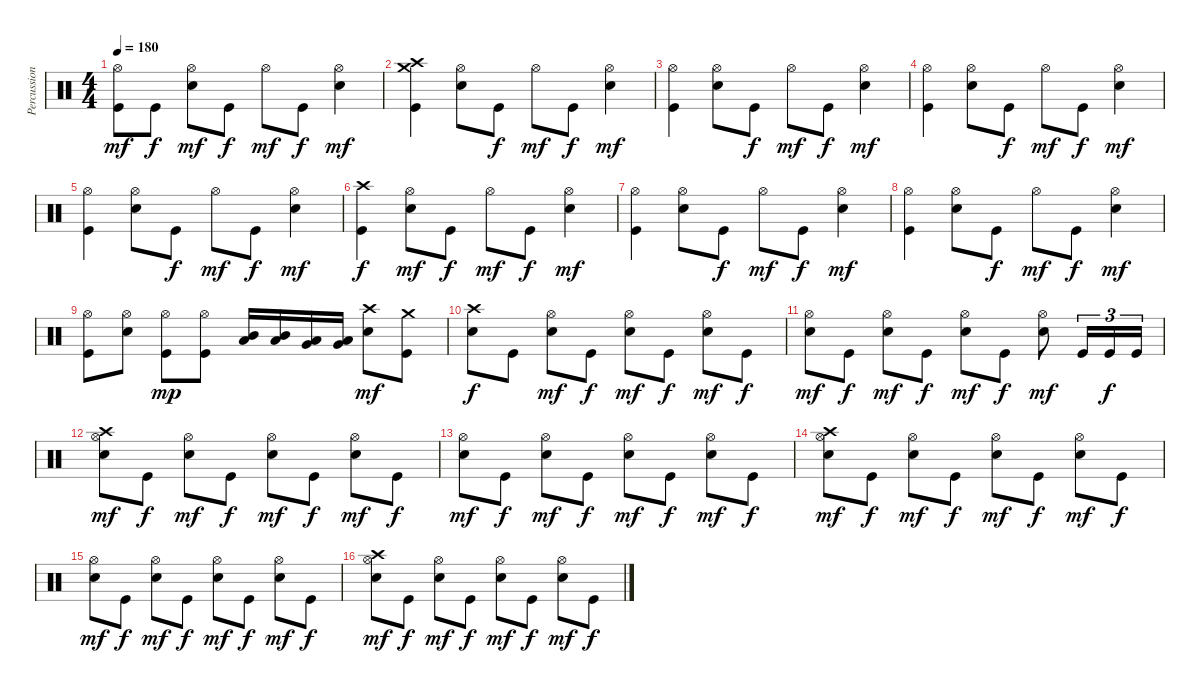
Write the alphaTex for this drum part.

\track ("Percussions" "Percussion") {instrument percussion}
\staff {score}
\articulation defaults
\ts (4 4)
\tempo 180
\clef neutral
\ks c
("Kick (hit)" "Hi-Hat (open)").8{dy mf} "Kick (hit)".8{dy f} ("Electric Snare (hit)" "Hi-Hat (open)").8{dy mf} "Kick (hit)".8{dy f} "Hi-Hat (open)".8{dy mf} "Kick (hit)".8{dy f} ("Electric Snare (hit)" "Hi-Hat (open)").4{dy mf} |
("Kick (hit)" "Crash high (hit)" "Crash medium (hit)").4 ("Electric Snare (hit)" "Hi-Hat (open)").8 "Kick (hit)".8{dy f} "Hi-Hat (open)".8{dy mf} "Kick (hit)".8{dy f} ("Electric Snare (hit)" "Hi-Hat (open)").4{dy mf} |
("Kick (hit)" "Hi-Hat (open)").4 ("Electric Snare (hit)" "Hi-Hat (open)").8 "Kick (hit)".8{dy f} "Hi-Hat (open)".8{dy mf} "Kick (hit)".8{dy f} ("Electric Snare (hit)" "Hi-Hat (open)").4{dy mf} |
("Kick (hit)" "Hi-Hat (open)").4 ("Electric Snare (hit)" "Hi-Hat (open)").8 "Kick (hit)".8{dy f} "Hi-Hat (open)".8{dy mf} "Kick (hit)".8{dy f} ("Electric Snare (hit)" "Hi-Hat (open)").4{dy mf} |
("Kick (hit)" "Hi-Hat (open)").4 ("Electric Snare (hit)" "Hi-Hat (open)").8 "Kick (hit)".8{dy f} "Hi-Hat (open)".8{dy mf} "Kick (hit)".8{dy f} ("Electric Snare (hit)" "Hi-Hat (open)").4{dy mf} |
("Kick (hit)" "Crash high (hit)").4{dy f} ("Electric Snare (hit)" "Hi-Hat (open)").8{dy mf} "Kick (hit)".8{dy f} "Hi-Hat (open)".8{dy mf} "Kick (hit)".8{dy f} ("Electric Snare (hit)" "Hi-Hat (open)").4{dy mf} |
("Kick (hit)" "Hi-Hat (open)").4 ("Electric Snare (hit)" "Hi-Hat (open)").8 "Kick (hit)".8{dy f} "Hi-Hat (open)".8{dy mf} "Kick (hit)".8{dy f} ("Electric Snare (hit)" "Hi-Hat (open)").4{dy mf} |
("Kick (hit)" "Hi-Hat (open)").4 ("Electric Snare (hit)" "Hi-Hat (open)").8 "Kick (hit)".8{dy f} "Hi-Hat (open)".8{dy mf} "Kick (hit)".8{dy f} ("Electric Snare (hit)" "Hi-Hat (open)").4{dy mf} |
("Kick (hit)" "Hi-Hat (open)").8 ("Electric Snare (hit)" "Hi-Hat (open)").8 ("Kick (hit)" "Hi-Hat (open)").8{dy mp} ("Kick (hit)" "Hi-Hat (open)").8 ("Low Tom (hit)" "Mid Tom (hit)").16 ("Low Tom (hit)" "Mid Tom (hit)").16 ("Very Low Tom (hit)" "Low Tom (hit)").16 ("Very Low Tom (hit)" "Low Tom (hit)").16 ("Electric Snare (hit)" "Crash high (hit)").8{dy mf} ("Kick (hit)" "Crash medium (hit)").8 |
("Electric Snare (hit)" "Crash high (hit)").8{dy f} "Kick (hit)".8 ("Electric Snare (hit)" "Hi-Hat (open)").8{dy mf} "Kick (hit)".8{dy f} ("Electric Snare (hit)" "Hi-Hat (open)").8{dy mf} "Kick (hit)".8{dy f} ("Electric Snare (hit)" "Hi-Hat (open)").8{dy mf} "Kick (hit)".8{dy f} |
("Electric Snare (hit)" "Hi-Hat (open)").8{dy mf} "Kick (hit)".8{dy f} ("Electric Snare (hit)" "Hi-Hat (open)").8{dy mf} "Kick (hit)".8{dy f} ("Electric Snare (hit)" "Hi-Hat (open)").8{dy mf} "Kick (hit)".8{dy f} ("Electric Snare (hit)" "Hi-Hat (open)").8{dy mf} "Kick (hit)".16{tu (3 2)} "Kick (hit)".16{tu (3 2) dy f} "Kick (hit)".16{tu (3 2)} |
("Electric Snare (hit)" "Hi-Hat (open)" "Crash high (hit)").8{dy mf} "Kick (hit)".8{dy f} ("Electric Snare (hit)" "Hi-Hat (open)").8{dy mf} "Kick (hit)".8{dy f} ("Electric Snare (hit)" "Hi-Hat (open)").8{dy mf} "Kick (hit)".8{dy f} ("Electric Snare (hit)" "Hi-Hat (open)").8{dy mf} "Kick (hit)".8{dy f} |
("Electric Snare (hit)" "Hi-Hat (open)").8{dy mf} "Kick (hit)".8{dy f} ("Electric Snare (hit)" "Hi-Hat (open)").8{dy mf} "Kick (hit)".8{dy f} ("Electric Snare (hit)" "Hi-Hat (open)").8{dy mf} "Kick (hit)".8{dy f} ("Electric Snare (hit)" "Hi-Hat (open)").8{dy mf} "Kick (hit)".8{dy f} |
("Electric Snare (hit)" "Hi-Hat (open)" "Crash high (hit)").8{dy mf} "Kick (hit)".8{dy f} ("Electric Snare (hit)" "Hi-Hat (open)").8{dy mf} "Kick (hit)".8{dy f} ("Electric Snare (hit)" "Hi-Hat (open)").8{dy mf} "Kick (hit)".8{dy f} ("Electric Snare (hit)" "Hi-Hat (open)").8{dy mf} "Kick (hit)".8{dy f} |
("Electric Snare (hit)" "Hi-Hat (open)").8{dy mf} "Kick (hit)".8{dy f} ("Electric Snare (hit)" "Hi-Hat (open)").8{dy mf} "Kick (hit)".8{dy f} ("Electric Snare (hit)" "Hi-Hat (open)").8{dy mf} "Kick (hit)".8{dy f} ("Electric Snare (hit)" "Hi-Hat (open)").8{dy mf} "Kick (hit)".8{dy f} |
("Electric Snare (hit)" "Hi-Hat (open)" "Crash high (hit)").8{dy mf} "Kick (hit)".8{dy f} ("Electric Snare (hit)" "Hi-Hat (open)").8{dy mf} "Kick (hit)".8{dy f} ("Electric Snare (hit)" "Hi-Hat (open)").8{dy mf} "Kick (hit)".8{dy f} ("Electric Snare (hit)" "Hi-Hat (open)").8{dy mf} "Kick (hit)".8{dy f}
